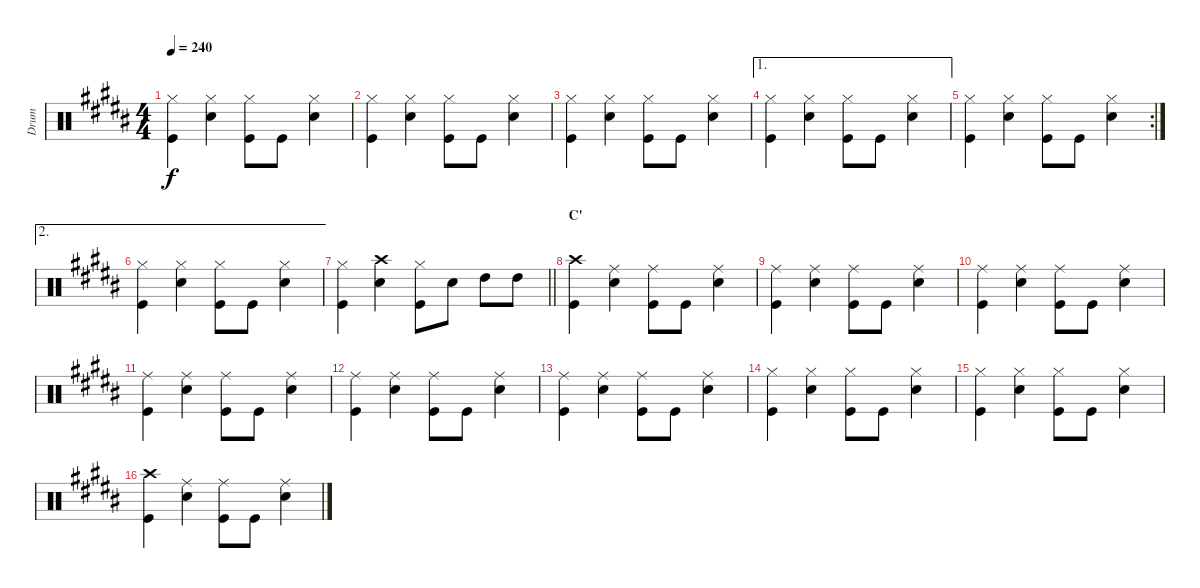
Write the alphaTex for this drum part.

\track ("Drum" "Drum") {instrument percussion}
\staff {score}
\articulation defaults
\ts (4 4)
\tempo 240
\clef neutral
\ks b
("Kick (hit)" "Hi-Hat (closed)").4{dy f} ("Hi-Hat (closed)" "Snare (hit) 2").4 ("Hi-Hat (closed)" "Kick (hit)").8 "Kick (hit)".8 ("Snare (hit) 2" "Hi-Hat (closed)").4 |
("Kick (hit)" "Hi-Hat (closed)").4 ("Hi-Hat (closed)" "Snare (hit) 2").4 ("Hi-Hat (closed)" "Kick (hit)").8 "Kick (hit)".8 ("Snare (hit) 2" "Hi-Hat (closed)").4 |
("Kick (hit)" "Hi-Hat (closed)").4 ("Hi-Hat (closed)" "Snare (hit) 2").4 ("Hi-Hat (closed)" "Kick (hit)").8 "Kick (hit)".8 ("Snare (hit) 2" "Hi-Hat (closed)").4 |
\ae 1
("Kick (hit)" "Hi-Hat (closed)").4 ("Hi-Hat (closed)" "Snare (hit) 2").4 ("Hi-Hat (closed)" "Kick (hit)").8 "Kick (hit)".8 ("Snare (hit) 2" "Hi-Hat (closed)").4 |
\rc 2
("Kick (hit)" "Hi-Hat (closed)").4 ("Hi-Hat (closed)" "Snare (hit) 2").4 ("Hi-Hat (closed)" "Kick (hit)").8 "Kick (hit)".8 ("Snare (hit) 2" "Hi-Hat (closed)").4 |
\ae 2
("Kick (hit)" "Hi-Hat (closed)").4 ("Hi-Hat (closed)" "Snare (hit) 2").4 ("Hi-Hat (closed)" "Kick (hit)").8 "Kick (hit)".8 ("Snare (hit) 2" "Hi-Hat (closed)").4 |
\barLineRight lightlight
("Kick (hit)" "Hi-Hat (closed)").4 ("Crash high (hit)" "Snare (hit) 2").4 ("Kick (hit)" "Hi-Hat (closed)").8 "Snare (hit) 2".8 "High Tom (hit)".8 "High Tom (hit)".8 |
\section ("" "C'")
("Kick (hit)" "Crash high (hit)").4 ("Ride (middle)" "Snare (hit) 2").4 ("Ride (middle)" "Kick (hit)").8 "Kick (hit)".8 ("Snare (hit) 2" "Ride (middle)").4 |
("Kick (hit)" "Ride (middle)").4 ("Ride (middle)" "Snare (hit) 2").4 ("Ride (middle)" "Kick (hit)").8 "Kick (hit)".8 ("Snare (hit) 2" "Ride (middle)").4 |
("Kick (hit)" "Ride (middle)").4 ("Ride (middle)" "Snare (hit) 2").4 ("Ride (middle)" "Kick (hit)").8 "Kick (hit)".8 ("Snare (hit) 2" "Ride (middle)").4 |
("Kick (hit)" "Ride (middle)").4 ("Ride (middle)" "Snare (hit) 2").4 ("Ride (middle)" "Kick (hit)").8 "Kick (hit)".8 ("Snare (hit) 2" "Ride (middle)").4 |
("Kick (hit)" "Ride (middle)").4 ("Ride (middle)" "Snare (hit) 2").4 ("Ride (middle)" "Kick (hit)").8 "Kick (hit)".8 ("Snare (hit) 2" "Ride (middle)").4 |
("Kick (hit)" "Ride (middle)").4 ("Ride (middle)" "Snare (hit) 2").4 ("Ride (middle)" "Kick (hit)").8 "Kick (hit)".8 ("Snare (hit) 2" "Ride (middle)").4 |
("Kick (hit)" "Hi-Hat (closed)").4 ("Hi-Hat (closed)" "Snare (hit) 2").4 ("Hi-Hat (closed)" "Kick (hit)").8 "Kick (hit)".8 ("Snare (hit) 2" "Hi-Hat (closed)").4 |
("Kick (hit)" "Hi-Hat (closed)").4 ("Hi-Hat (closed)" "Snare (hit) 2").4 ("Hi-Hat (closed)" "Kick (hit)").8 "Kick (hit)".8 ("Snare (hit) 2" "Hi-Hat (closed)").4 |
("Kick (hit)" "Crash high (hit)").4 ("Ride (middle)" "Snare (hit) 2").4 ("Ride (middle)" "Kick (hit)").8 "Kick (hit)".8 ("Snare (hit) 2" "Ride (middle)").4
